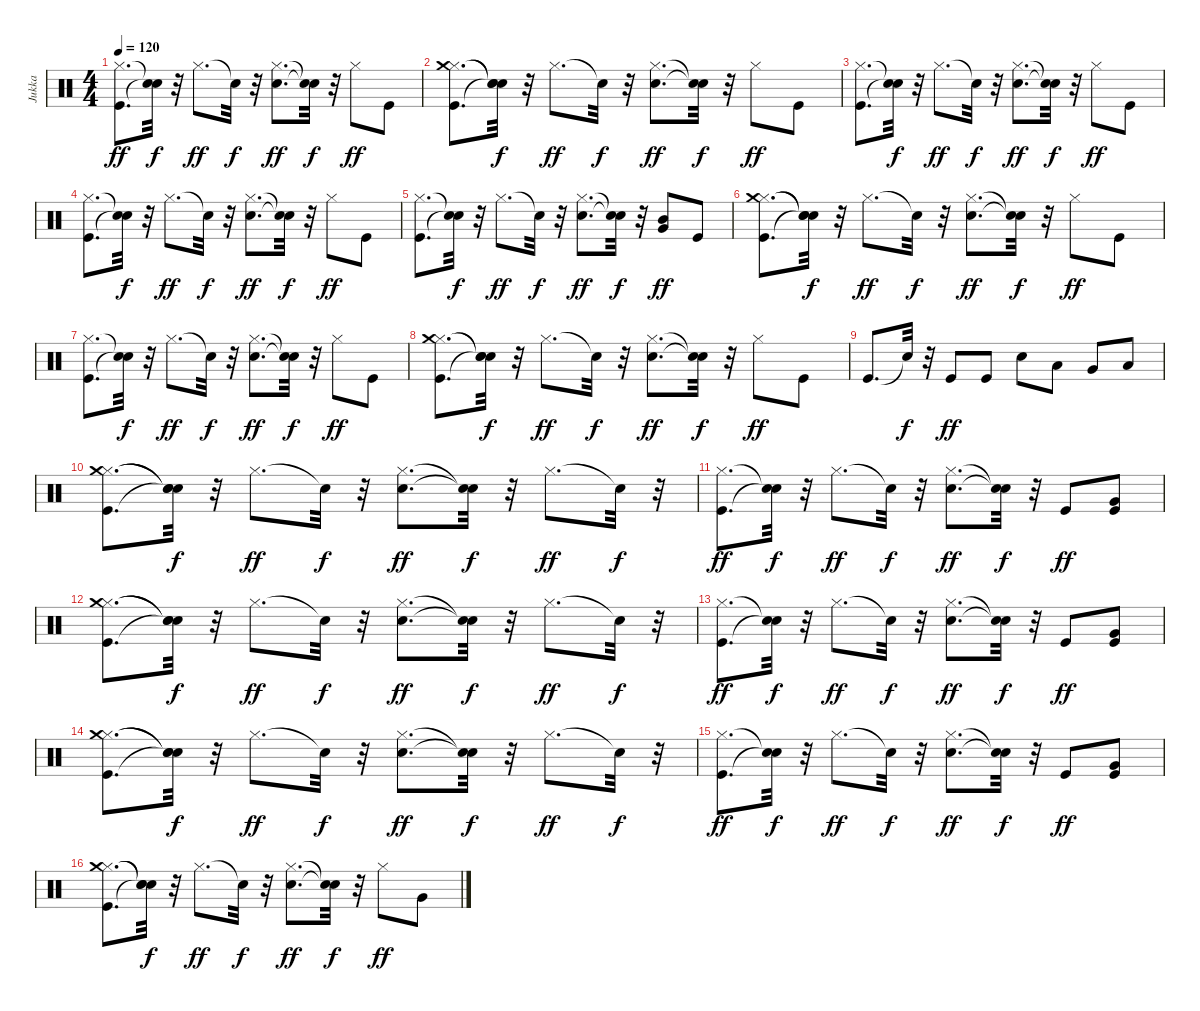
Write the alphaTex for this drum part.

\track ("Jukka" "Jukka") {instrument percussion}
\staff {score}
\articulation defaults
\ts (4 4)
\tempo 120
\clef neutral
\ks c
("Kick (hit)" "Hi-Hat (closed)").8{d dy ff} ("Snare (hit)"{t} "Snare (hit)"{t}).32{dy f} r.32 "Hi-Hat (closed)".8{d dy ff} "Snare (hit)"{t}.32{dy f} r.32 ("Electric Snare (hit)" "Hi-Hat (closed)").8{d dy ff} ("Snare (hit)"{t} "Snare (hit)"{t}).32{dy f} r.32 "Hi-Hat (closed)".8{dy ff} "Kick (hit)".8 |
("Kick (hit)" "Hi-Hat (closed)" "Crash medium (hit)").8{d} ("Snare (hit)"{t} "Snare (hit)"{t} "Snare (hit)"{t}).32{dy f} r.32 "Hi-Hat (closed)".8{d dy ff} "Snare (hit)"{t}.32{dy f} r.32 ("Electric Snare (hit)" "Hi-Hat (closed)").8{d dy ff} ("Snare (hit)"{t} "Snare (hit)"{t}).32{dy f} r.32 "Hi-Hat (closed)".8{dy ff} "Kick (hit)".8 |
("Kick (hit)" "Hi-Hat (closed)").8{d} ("Snare (hit)"{t} "Snare (hit)"{t}).32{dy f} r.32 "Hi-Hat (closed)".8{d dy ff} "Snare (hit)"{t}.32{dy f} r.32 ("Electric Snare (hit)" "Hi-Hat (closed)").8{d dy ff} ("Snare (hit)"{t} "Snare (hit)"{t}).32{dy f} r.32 "Hi-Hat (closed)".8{dy ff} "Kick (hit)".8 |
("Kick (hit)" "Hi-Hat (closed)").8{d} ("Snare (hit)"{t} "Snare (hit)"{t}).32{dy f} r.32 "Hi-Hat (closed)".8{d dy ff} "Snare (hit)"{t}.32{dy f} r.32 ("Electric Snare (hit)" "Hi-Hat (closed)").8{d dy ff} ("Snare (hit)"{t} "Snare (hit)"{t}).32{dy f} r.32 "Hi-Hat (closed)".8{dy ff} "Kick (hit)".8 |
("Kick (hit)" "Hi-Hat (closed)").8{d} ("Snare (hit)"{t} "Snare (hit)"{t}).32{dy f} r.32 "Hi-Hat (closed)".8{d dy ff} "Snare (hit)"{t}.32{dy f} r.32 ("Electric Snare (hit)" "Hi-Hat (closed)").8{d dy ff} ("Snare (hit)"{t} "Snare (hit)"{t}).32{dy f} r.32 ("Very Low Tom (hit)" "Mid Tom (hit)").8{dy ff} "Kick (hit)".8 |
("Kick (hit)" "Hi-Hat (closed)" "Crash medium (hit)").8{d} ("Snare (hit)"{t} "Snare (hit)"{t} "Snare (hit)"{t}).32{dy f} r.32 "Hi-Hat (closed)".8{d dy ff} "Snare (hit)"{t}.32{dy f} r.32 ("Electric Snare (hit)" "Hi-Hat (closed)").8{d dy ff} ("Snare (hit)"{t} "Snare (hit)"{t}).32{dy f} r.32 "Hi-Hat (closed)".8{dy ff} "Kick (hit)".8 |
("Kick (hit)" "Hi-Hat (closed)").8{d} ("Snare (hit)"{t} "Snare (hit)"{t}).32{dy f} r.32 "Hi-Hat (closed)".8{d dy ff} "Snare (hit)"{t}.32{dy f} r.32 ("Electric Snare (hit)" "Hi-Hat (closed)").8{d dy ff} ("Snare (hit)"{t} "Snare (hit)"{t}).32{dy f} r.32 "Hi-Hat (closed)".8{dy ff} "Kick (hit)".8 |
("Kick (hit)" "Hi-Hat (closed)" "Crash medium (hit)").8{d} ("Snare (hit)"{t} "Snare (hit)"{t} "Snare (hit)"{t}).32{dy f} r.32 "Hi-Hat (closed)".8{d dy ff} "Snare (hit)"{t}.32{dy f} r.32 ("Electric Snare (hit)" "Hi-Hat (closed)").8{d dy ff} ("Snare (hit)"{t} "Snare (hit)"{t}).32{dy f} r.32 "Hi-Hat (closed)".8{dy ff} "Kick (hit)".8 |
"Kick (hit)".8{d} "Snare (hit)"{t}.32{dy f} r.32 "Kick (hit)".8{dy ff} "Kick (hit)".8 "Electric Snare (hit)".8 "Low Tom (hit)".8 "Very Low Tom (hit)".8 "Low Floor Tom (hit)".8 |
("Kick (hit)" "Hi-Hat (closed)" "Crash medium (hit)").8{d} ("Snare (hit)"{t} "Snare (hit)"{t} "Snare (hit)"{t}).32{dy f} r.32 "Hi-Hat (closed)".8{d dy ff} "Snare (hit)"{t}.32{dy f} r.32 ("Electric Snare (hit)" "Hi-Hat (closed)").8{d dy ff} ("Snare (hit)"{t} "Snare (hit)"{t}).32{dy f} r.32 "Hi-Hat (closed)".8{d dy ff} "Snare (hit)"{t}.32{dy f} r.32 |
("Kick (hit)" "Hi-Hat (closed)").8{d dy ff} ("Snare (hit)"{t} "Snare (hit)"{t}).32{dy f} r.32 "Hi-Hat (closed)".8{d dy ff} "Snare (hit)"{t}.32{dy f} r.32 ("Electric Snare (hit)" "Hi-Hat (closed)").8{d dy ff} ("Snare (hit)"{t} "Snare (hit)"{t}).32{dy f} r.32 "Kick (hit)".8{dy ff} ("Kick (hit)" "Very Low Tom (hit)").8 |
("Kick (hit)" "Hi-Hat (closed)" "Crash medium (hit)").8{d} ("Snare (hit)"{t} "Snare (hit)"{t} "Snare (hit)"{t}).32{dy f} r.32 "Hi-Hat (closed)".8{d dy ff} "Snare (hit)"{t}.32{dy f} r.32 ("Electric Snare (hit)" "Hi-Hat (closed)").8{d dy ff} ("Snare (hit)"{t} "Snare (hit)"{t}).32{dy f} r.32 "Hi-Hat (closed)".8{d dy ff} "Snare (hit)"{t}.32{dy f} r.32 |
("Kick (hit)" "Hi-Hat (closed)").8{d dy ff} ("Snare (hit)"{t} "Snare (hit)"{t}).32{dy f} r.32 "Hi-Hat (closed)".8{d dy ff} "Snare (hit)"{t}.32{dy f} r.32 ("Electric Snare (hit)" "Hi-Hat (closed)").8{d dy ff} ("Snare (hit)"{t} "Snare (hit)"{t}).32{dy f} r.32 "Kick (hit)".8{dy ff} ("Kick (hit)" "Very Low Tom (hit)").8 |
("Kick (hit)" "Hi-Hat (closed)" "Crash medium (hit)").8{d} ("Snare (hit)"{t} "Snare (hit)"{t} "Snare (hit)"{t}).32{dy f} r.32 "Hi-Hat (closed)".8{d dy ff} "Snare (hit)"{t}.32{dy f} r.32 ("Electric Snare (hit)" "Hi-Hat (closed)").8{d dy ff} ("Snare (hit)"{t} "Snare (hit)"{t}).32{dy f} r.32 "Hi-Hat (closed)".8{d dy ff} "Snare (hit)"{t}.32{dy f} r.32 |
("Kick (hit)" "Hi-Hat (closed)").8{d dy ff} ("Snare (hit)"{t} "Snare (hit)"{t}).32{dy f} r.32 "Hi-Hat (closed)".8{d dy ff} "Snare (hit)"{t}.32{dy f} r.32 ("Electric Snare (hit)" "Hi-Hat (closed)").8{d dy ff} ("Snare (hit)"{t} "Snare (hit)"{t}).32{dy f} r.32 "Kick (hit)".8{dy ff} ("Kick (hit)" "Very Low Tom (hit)").8 |
("Kick (hit)" "Hi-Hat (closed)" "Crash medium (hit)").8{d} ("Snare (hit)"{t} "Snare (hit)"{t} "Snare (hit)"{t}).32{dy f} r.32 "Hi-Hat (closed)".8{d dy ff} "Snare (hit)"{t}.32{dy f} r.32 ("Electric Snare (hit)" "Hi-Hat (closed)").8{d dy ff} ("Snare (hit)"{t} "Snare (hit)"{t}).32{dy f} r.32 "Hi-Hat (closed)".8{dy ff} "Very Low Tom (hit)".8
